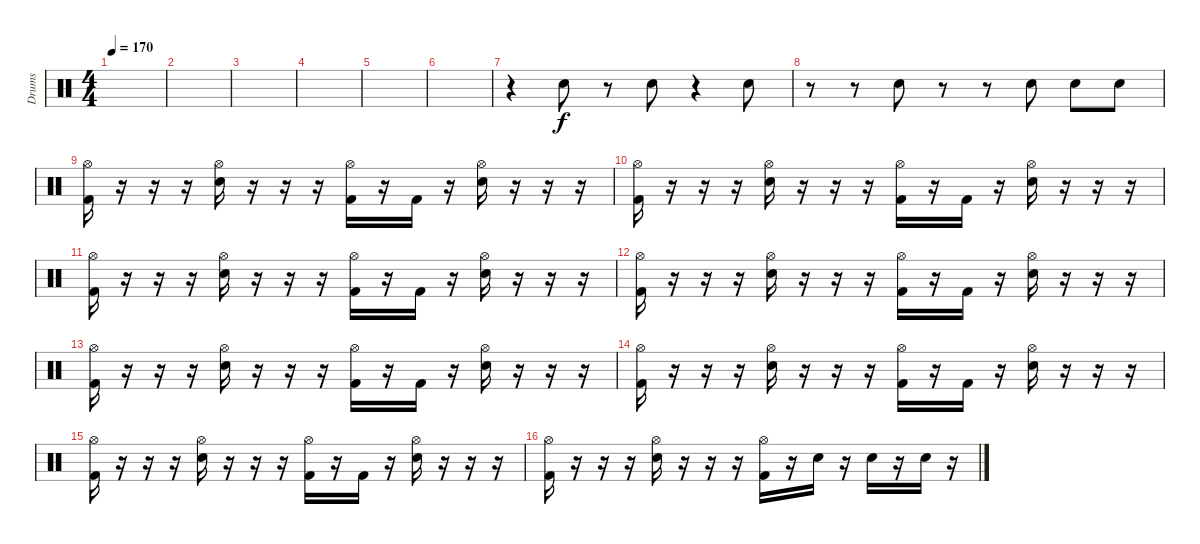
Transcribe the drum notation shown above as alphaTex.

\track ("Drums" "Drums") {instrument percussion}
\staff {score}
\articulation defaults
\ts (4 4)
\tempo 170
\clef neutral
\ks c
|
|
|
|
|
|
r.4 "Snare (hit) 2".8 r.8 "Snare (hit) 2".8 r.4 "Snare (hit) 2".8 |
r.8 r.8 "Snare (hit) 2".8 r.8 r.8 "Snare (hit) 2".8 "Snare (hit) 2".8 "Snare (hit) 2".8 |
("Hi-Hat (open)" "Kick (hit) 2").16 r.16 r.16 r.16 ("Hi-Hat (open)" "Snare (hit) 2").16 r.16 r.16 r.16 ("Hi-Hat (open)" "Kick (hit) 2").16 r.16 "Kick (hit) 2".16 r.16 ("Hi-Hat (open)" "Snare (hit) 2").16 r.16 r.16 r.16 |
("Hi-Hat (open)" "Kick (hit) 2").16 r.16 r.16 r.16 ("Hi-Hat (open)" "Snare (hit) 2").16 r.16 r.16 r.16 ("Hi-Hat (open)" "Kick (hit) 2").16 r.16 "Kick (hit) 2".16 r.16 ("Hi-Hat (open)" "Snare (hit) 2").16 r.16 r.16 r.16 |
("Hi-Hat (open)" "Kick (hit) 2").16 r.16 r.16 r.16 ("Hi-Hat (open)" "Snare (hit) 2").16 r.16 r.16 r.16 ("Hi-Hat (open)" "Kick (hit) 2").16 r.16 "Kick (hit) 2".16 r.16 ("Hi-Hat (open)" "Snare (hit) 2").16 r.16 r.16 r.16 |
("Hi-Hat (open)" "Kick (hit) 2").16 r.16 r.16 r.16 ("Hi-Hat (open)" "Snare (hit) 2").16 r.16 r.16 r.16 ("Hi-Hat (open)" "Kick (hit) 2").16 r.16 "Kick (hit) 2".16 r.16 ("Hi-Hat (open)" "Snare (hit) 2").16 r.16 r.16 r.16 |
("Hi-Hat (open)" "Kick (hit) 2").16 r.16 r.16 r.16 ("Hi-Hat (open)" "Snare (hit) 2").16 r.16 r.16 r.16 ("Hi-Hat (open)" "Kick (hit) 2").16 r.16 "Kick (hit) 2".16 r.16 ("Hi-Hat (open)" "Snare (hit) 2").16 r.16 r.16 r.16 |
("Hi-Hat (open)" "Kick (hit) 2").16 r.16 r.16 r.16 ("Hi-Hat (open)" "Snare (hit) 2").16 r.16 r.16 r.16 ("Hi-Hat (open)" "Kick (hit) 2").16 r.16 "Kick (hit) 2".16 r.16 ("Hi-Hat (open)" "Snare (hit) 2").16 r.16 r.16 r.16 |
("Hi-Hat (open)" "Kick (hit) 2").16 r.16 r.16 r.16 ("Hi-Hat (open)" "Snare (hit) 2").16 r.16 r.16 r.16 ("Hi-Hat (open)" "Kick (hit) 2").16 r.16 "Kick (hit) 2".16 r.16 ("Hi-Hat (open)" "Snare (hit) 2").16 r.16 r.16 r.16 |
("Hi-Hat (open)" "Kick (hit) 2").16 r.16 r.16 r.16 ("Hi-Hat (open)" "Snare (hit) 2").16 r.16 r.16 r.16 ("Hi-Hat (open)" "Kick (hit) 2").16 r.16 "Snare (hit) 2".16 r.16 "Snare (hit) 2".16 r.16 "Snare (hit) 2".16 r.16
